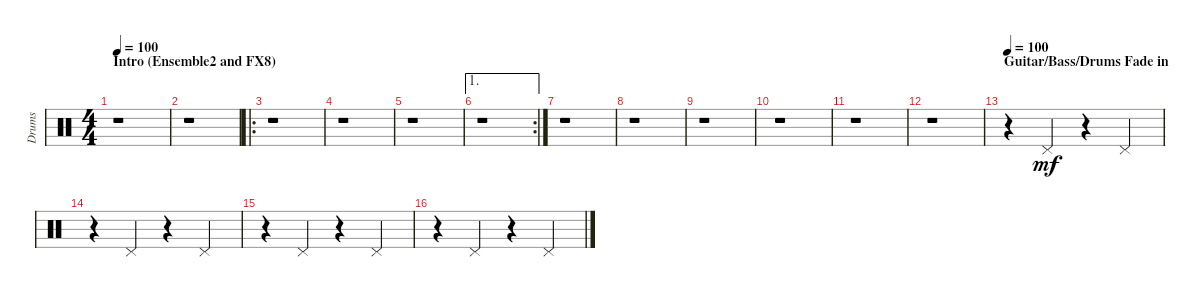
\track ("Drums" "Drums") {instrument percussion}
\staff {score}
\articulation defaults
\ts (4 4)
\section ("" "Intro (Ensemble2 and FX8)")
\tempo 100
\clef neutral
\ks c
r.1{dy mf} |
r.1 |
\ro
r.1 |
r.1 |
r.1 |
\ae 1
\rc 2
r.1 |
r.1 |
r.1 |
r.1 |
r.1 |
r.1 |
r.1{volume 4} |
\section ("" "Guitar/Bass/Drums Fade in")
\tempo 100
r.4{volume 12} "Pedal Hi-Hat (hit)".4 r.4 "Pedal Hi-Hat (hit)".4 |
r.4 "Pedal Hi-Hat (hit)".4 r.4 "Pedal Hi-Hat (hit)".4 |
r.4 "Pedal Hi-Hat (hit)".4 r.4 "Pedal Hi-Hat (hit)".4 |
r.4 "Pedal Hi-Hat (hit)".4 r.4 "Pedal Hi-Hat (hit)".4
